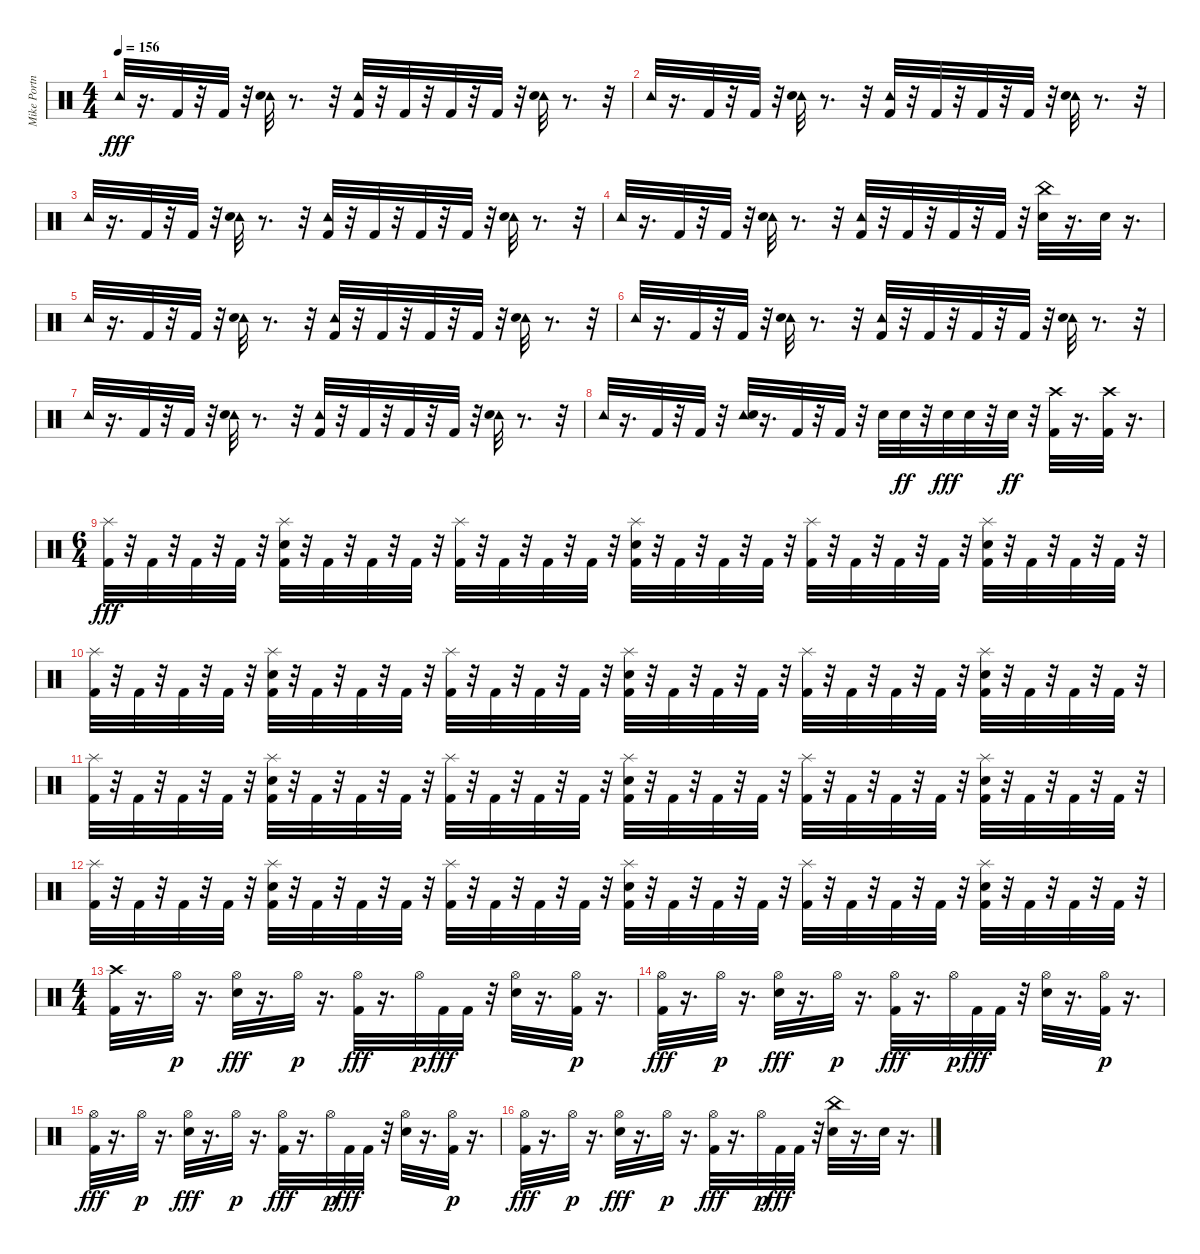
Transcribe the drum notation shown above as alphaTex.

\track ("Mike Portnoy" "Mike Portn") {instrument percussion}
\staff {score}
\articulation defaults
\ts (4 4)
\tempo 156
\clef neutral
\ks c "Tambourine (hit)".32{dy fff}
r.16{d} "Kick (hit) 2".32 r.32 "Kick (hit) 2".32 r.32 ("Tambourine (hit)" "Snare (hit) 2").32 r.8{d} r.32 ("Tambourine (hit)" "Kick (hit) 2").32 r.32 "Kick (hit) 2".32 r.32 "Kick (hit) 2".32 r.32 "Kick (hit) 2".32 r.32 ("Tambourine (hit)" "Snare (hit) 2").32 r.8{d} r.32 |
"Tambourine (hit)".32 r.16{d} "Kick (hit) 2".32 r.32 "Kick (hit) 2".32 r.32 ("Tambourine (hit)" "Snare (hit) 2").32 r.8{d} r.32 ("Tambourine (hit)" "Kick (hit) 2").32 r.32 "Kick (hit) 2".32 r.32 "Kick (hit) 2".32 r.32 "Kick (hit) 2".32 r.32 ("Tambourine (hit)" "Snare (hit) 2").32 r.8{d} r.32 |
"Tambourine (hit)".32 r.16{d} "Kick (hit) 2".32 r.32 "Kick (hit) 2".32 r.32 ("Tambourine (hit)" "Snare (hit) 2").32 r.8{d} r.32 ("Tambourine (hit)" "Kick (hit) 2").32 r.32 "Kick (hit) 2".32 r.32 "Kick (hit) 2".32 r.32 "Kick (hit) 2".32 r.32 ("Tambourine (hit)" "Snare (hit) 2").32 r.8{d} r.32 |
"Tambourine (hit)".32 r.16{d} "Kick (hit) 2".32 r.32 "Kick (hit) 2".32 r.32 ("Tambourine (hit)" "Snare (hit) 2").32 r.8{d} r.32 ("Tambourine (hit)" "Kick (hit) 2").32 r.32 "Kick (hit) 2".32 r.32 "Kick (hit) 2".32 r.32 "Kick (hit) 2".32 r.32 ("Snare (hit) 2" "China (hit)").32 r.16{d} "Snare (hit) 2".32 r.16{d} |
"Tambourine (hit)".32 r.16{d} "Kick (hit) 2".32 r.32 "Kick (hit) 2".32 r.32 ("Tambourine (hit)" "Snare (hit) 2").32 r.8{d} r.32 ("Tambourine (hit)" "Kick (hit) 2").32 r.32 "Kick (hit) 2".32 r.32 "Kick (hit) 2".32 r.32 "Kick (hit) 2".32 r.32 ("Tambourine (hit)" "Snare (hit) 2").32 r.8{d} r.32 |
"Tambourine (hit)".32 r.16{d} "Kick (hit) 2".32 r.32 "Kick (hit) 2".32 r.32 ("Tambourine (hit)" "Snare (hit) 2").32 r.8{d} r.32 ("Tambourine (hit)" "Kick (hit) 2").32 r.32 "Kick (hit) 2".32 r.32 "Kick (hit) 2".32 r.32 "Kick (hit) 2".32 r.32 ("Tambourine (hit)" "Snare (hit) 2").32 r.8{d} r.32 |
"Tambourine (hit)".32 r.16{d} "Kick (hit) 2".32 r.32 "Kick (hit) 2".32 r.32 ("Tambourine (hit)" "Snare (hit) 2").32 r.8{d} r.32 ("Tambourine (hit)" "Kick (hit) 2").32 r.32 "Kick (hit) 2".32 r.32 "Kick (hit) 2".32 r.32 "Kick (hit) 2".32 r.32 ("Tambourine (hit)" "Snare (hit) 2").32 r.8{d} r.32 |
"Tambourine (hit)".32 r.16{d} "Kick (hit) 2".32 r.32 "Kick (hit) 2".32 r.32 ("Tambourine (hit)" "Snare (hit) 2").32 r.16{d} "Kick (hit) 2".32 r.32 "Kick (hit) 2".32 r.32 "Snare (hit) 2".32 "Snare (hit) 2".32{dy ff} r.32 "Snare (hit) 2".32{dy fff} "Snare (hit) 2".32 r.32 "Snare (hit) 2".32{dy ff} r.32 ("Kick (hit) 2" "Crash high (hit)").32 r.16{d} ("Kick (hit) 2" "Crash high (hit)").32 r.16{d} |
\ts (6 4)
("Kick (hit) 2" "Splash (hit)").32{dy fff} r.32 "Kick (hit) 2".32 r.32 "Kick (hit) 2".32 r.32 "Kick (hit) 2".32 r.32 ("Kick (hit) 2" "Splash (hit)" "Snare (hit) 2").32 r.32 "Kick (hit) 2".32 r.32 "Kick (hit) 2".32 r.32 "Kick (hit) 2".32 r.32 ("Kick (hit) 2" "Splash (hit)").32 r.32 "Kick (hit) 2".32 r.32 "Kick (hit) 2".32 r.32 "Kick (hit) 2".32 r.32 ("Kick (hit) 2" "Splash (hit)" "Snare (hit) 2").32 r.32 "Kick (hit) 2".32 r.32 "Kick (hit) 2".32 r.32 "Kick (hit) 2".32 r.32 ("Kick (hit) 2" "Splash (hit)").32 r.32 "Kick (hit) 2".32 r.32 "Kick (hit) 2".32 r.32 "Kick (hit) 2".32 r.32 ("Kick (hit) 2" "Splash (hit)" "Snare (hit) 2").32 r.32 "Kick (hit) 2".32 r.32 "Kick (hit) 2".32 r.32 "Kick (hit) 2".32 r.32 |
("Kick (hit) 2" "Splash (hit)").32 r.32 "Kick (hit) 2".32 r.32 "Kick (hit) 2".32 r.32 "Kick (hit) 2".32 r.32 ("Kick (hit) 2" "Splash (hit)" "Snare (hit) 2").32 r.32 "Kick (hit) 2".32 r.32 "Kick (hit) 2".32 r.32 "Kick (hit) 2".32 r.32 ("Kick (hit) 2" "Splash (hit)").32 r.32 "Kick (hit) 2".32 r.32 "Kick (hit) 2".32 r.32 "Kick (hit) 2".32 r.32 ("Kick (hit) 2" "Splash (hit)" "Snare (hit) 2").32 r.32 "Kick (hit) 2".32 r.32 "Kick (hit) 2".32 r.32 "Kick (hit) 2".32 r.32 ("Kick (hit) 2" "Splash (hit)").32 r.32 "Kick (hit) 2".32 r.32 "Kick (hit) 2".32 r.32 "Kick (hit) 2".32 r.32 ("Kick (hit) 2" "Splash (hit)" "Snare (hit) 2").32 r.32 "Kick (hit) 2".32 r.32 "Kick (hit) 2".32 r.32 "Kick (hit) 2".32 r.32 |
("Kick (hit) 2" "Splash (hit)").32 r.32 "Kick (hit) 2".32 r.32 "Kick (hit) 2".32 r.32 "Kick (hit) 2".32 r.32 ("Kick (hit) 2" "Splash (hit)" "Snare (hit) 2").32 r.32 "Kick (hit) 2".32 r.32 "Kick (hit) 2".32 r.32 "Kick (hit) 2".32 r.32 ("Kick (hit) 2" "Splash (hit)").32 r.32 "Kick (hit) 2".32 r.32 "Kick (hit) 2".32 r.32 "Kick (hit) 2".32 r.32 ("Kick (hit) 2" "Splash (hit)" "Snare (hit) 2").32 r.32 "Kick (hit) 2".32 r.32 "Kick (hit) 2".32 r.32 "Kick (hit) 2".32 r.32 ("Kick (hit) 2" "Splash (hit)").32 r.32 "Kick (hit) 2".32 r.32 "Kick (hit) 2".32 r.32 "Kick (hit) 2".32 r.32 ("Kick (hit) 2" "Splash (hit)" "Snare (hit) 2").32 r.32 "Kick (hit) 2".32 r.32 "Kick (hit) 2".32 r.32 "Kick (hit) 2".32 r.32 |
("Kick (hit) 2" "Splash (hit)").32 r.32 "Kick (hit) 2".32 r.32 "Kick (hit) 2".32 r.32 "Kick (hit) 2".32 r.32 ("Kick (hit) 2" "Splash (hit)" "Snare (hit) 2").32 r.32 "Kick (hit) 2".32 r.32 "Kick (hit) 2".32 r.32 "Kick (hit) 2".32 r.32 ("Kick (hit) 2" "Splash (hit)").32 r.32 "Kick (hit) 2".32 r.32 "Kick (hit) 2".32 r.32 "Kick (hit) 2".32 r.32 ("Kick (hit) 2" "Splash (hit)" "Snare (hit) 2").32 r.32 "Kick (hit) 2".32 r.32 "Kick (hit) 2".32 r.32 "Kick (hit) 2".32 r.32 ("Kick (hit) 2" "Splash (hit)").32 r.32 "Kick (hit) 2".32 r.32 "Kick (hit) 2".32 r.32 "Kick (hit) 2".32 r.32 ("Kick (hit) 2" "Splash (hit)" "Snare (hit) 2").32 r.32 "Kick (hit) 2".32 r.32 "Kick (hit) 2".32 r.32 "Kick (hit) 2".32 r.32 |
\ts (4 4)
("Kick (hit) 2" "Crash high (hit)").32 r.16{d} "Hi-Hat (open)".32{dy p} r.16{d} ("Snare (hit) 2" "Hi-Hat (open)").32{dy fff} r.16{d} "Hi-Hat (open)".32{dy p} r.16{d} ("Kick (hit) 2" "Hi-Hat (open)").32{dy fff} r.16{d} "Hi-Hat (open)".32{dy p} "Kick (hit) 2".32{dy fff} "Kick (hit) 2".32 r.32 ("Snare (hit) 2" "Hi-Hat (open)").32 r.16{d} ("Kick (hit) 2" "Hi-Hat (open)").32{dy p} r.16{d} |
("Kick (hit) 2" "Hi-Hat (open)").32{dy fff} r.16{d} "Hi-Hat (open)".32{dy p} r.16{d} ("Snare (hit) 2" "Hi-Hat (open)").32{dy fff} r.16{d} "Hi-Hat (open)".32{dy p} r.16{d} ("Kick (hit) 2" "Hi-Hat (open)").32{dy fff} r.16{d} "Hi-Hat (open)".32{dy p} "Kick (hit) 2".32{dy fff} "Kick (hit) 2".32 r.32 ("Snare (hit) 2" "Hi-Hat (open)").32 r.16{d} ("Kick (hit) 2" "Hi-Hat (open)").32{dy p} r.16{d} |
("Kick (hit) 2" "Hi-Hat (open)").32{dy fff} r.16{d} "Hi-Hat (open)".32{dy p} r.16{d} ("Snare (hit) 2" "Hi-Hat (open)").32{dy fff} r.16{d} "Hi-Hat (open)".32{dy p} r.16{d} ("Kick (hit) 2" "Hi-Hat (open)").32{dy fff} r.16{d} "Hi-Hat (open)".32{dy p} "Kick (hit) 2".32{dy fff} "Kick (hit) 2".32 r.32 ("Snare (hit) 2" "Hi-Hat (open)").32 r.16{d} ("Kick (hit) 2" "Hi-Hat (open)").32{dy p} r.16{d} |
("Kick (hit) 2" "Hi-Hat (open)").32{dy fff} r.16{d} "Hi-Hat (open)".32{dy p} r.16{d} ("Snare (hit) 2" "Hi-Hat (open)").32{dy fff} r.16{d} "Hi-Hat (open)".32{dy p} r.16{d} ("Kick (hit) 2" "Hi-Hat (open)").32{dy fff} r.16{d} "Hi-Hat (open)".32{dy p} "Kick (hit) 2".32{dy fff} "Kick (hit) 2".32 r.32 ("Snare (hit) 2" "China (hit)").32 r.16{d} "Snare (hit) 2".32 r.16{d}
